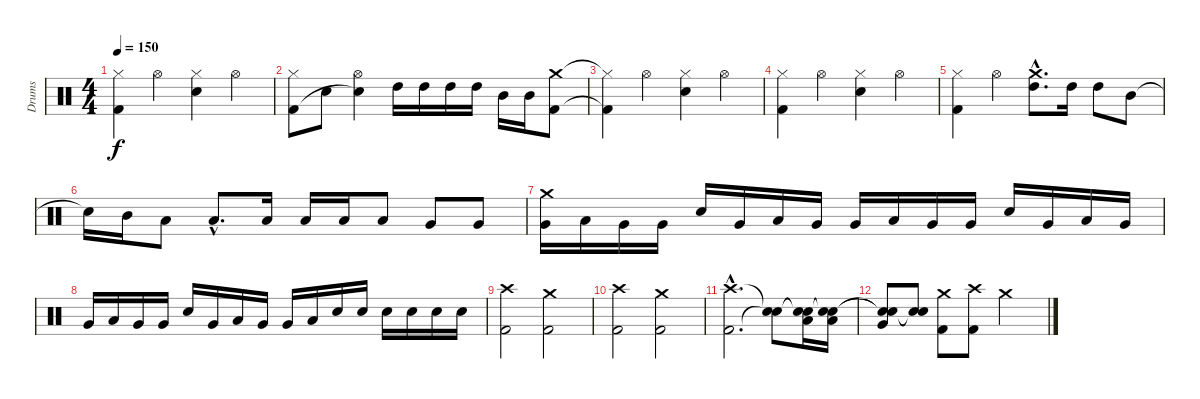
\track ("Drums" "Drums") {instrument percussion}
\staff {score}
\articulation defaults
\ts (4 4)
\tempo 150
\clef neutral
\ks c
("Hi-Hat (closed)" "Kick (hit) 2").4{dy f} "Hi-Hat (open)".4 ("Hi-Hat (closed)" "Electric Snare (hit)").4 "Hi-Hat (open)".4 |
("Hi-Hat (closed)" "Kick (hit) 2").8 "Electric Snare (hit)".8 ("Hi-Hat (open)" "Snare (hit)"{t}).4 "High Tom (hit)".16 "High Tom (hit)".16 "High Tom (hit)".16 "High Tom (hit)".16 "Mid Tom (hit)".16 "Mid Tom (hit)".16 ("Crash medium (hit)" "Kick (hit) 2").8 |
("Hi-Hat (closed)"{t} "Kick (hit) 2"{t}).4 "Hi-Hat (open)".4 ("Hi-Hat (closed)" "Electric Snare (hit)").4 "Hi-Hat (open)".4 |
("Hi-Hat (closed)" "Kick (hit) 2").4 "Hi-Hat (open)".4 ("Hi-Hat (closed)" "Electric Snare (hit)").4 "Hi-Hat (open)".4 |
("Hi-Hat (closed)" "Kick (hit) 2").4 "Hi-Hat (open)".4 ("Crash medium (hit)"{hac} "High Tom (hit)"{hac}).8{d} "High Tom (hit)".16 "High Tom (hit)".8 "Mid Tom (hit)".8 |
"Snare (hit)"{t}.16 "Mid Tom (hit)".16 "Low Tom (hit)".8 "Low Tom (hit)"{hac}.8{d} "Low Tom (hit)".16 "Low Tom (hit)".16 "Low Tom (hit)".16 "Low Tom (hit)".8 "Very Low Tom (hit)".8 "Very Low Tom (hit)".8 |
("Very Low Tom (hit)" "Crash medium (hit)").16 "Low Tom (hit)".16 "Very Low Tom (hit)".16 "Very Low Tom (hit)".16 "Electric Snare (hit)".16 "Very Low Tom (hit)".16 "Low Tom (hit)".16 "Very Low Tom (hit)".16 "Very Low Tom (hit)".16 "Low Tom (hit)".16 "Very Low Tom (hit)".16 "Very Low Tom (hit)".16 "Electric Snare (hit)".16 "Very Low Tom (hit)".16 "Low Tom (hit)".16 "Very Low Tom (hit)".16 |
"Very Low Tom (hit)".16 "Low Tom (hit)".16 "Very Low Tom (hit)".16 "Very Low Tom (hit)".16 "Electric Snare (hit)".16 "Very Low Tom (hit)".16 "Low Tom (hit)".16 "Very Low Tom (hit)".16 "Very Low Tom (hit)".16 "Low Tom (hit)".16 "Electric Snare (hit)".16 "Electric Snare (hit)".16 "Electric Snare (hit)".16 "Electric Snare (hit)".16 "Electric Snare (hit)".16 "Electric Snare (hit)".16 |
("Crash high (hit)" "Kick (hit) 2").2 ("Crash medium (hit)" "Kick (hit) 2").2 |
("Crash high (hit)" "Kick (hit) 2").2 ("Crash medium (hit)" "Kick (hit) 2").2 |
("Crash high (hit)"{hac} "Kick (hit) 2"{hac}).2{d} ("Snare (hit)"{t} "Snare (hit)"{t}).8 ("Snare (hit)"{t} "Snare (hit)"{t} "Low Tom (hit)").16 ("Snare (hit)"{t} "Snare (hit)"{t} "Low Tom (hit)").16 |
("Snare (hit)"{t} "Snare (hit)"{t} "Very Low Tom (hit)").8 ("Snare (hit)"{t} "Snare (hit)"{t}).8 ("Crash medium (hit)" "Kick (hit) 2").8 ("Crash high (hit)" "Kick (hit) 2").8 "Crash medium (hit)".2
